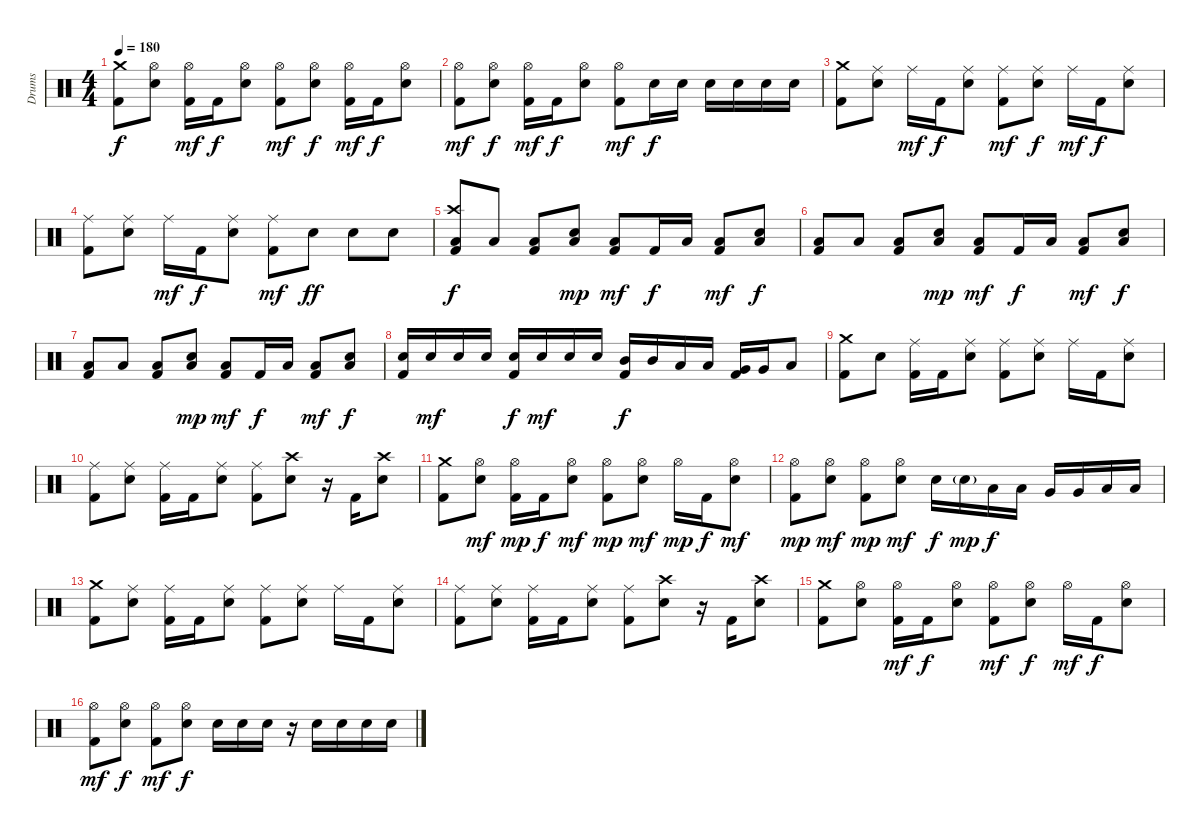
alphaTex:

\track ("Drums" "Drums") {instrument percussion}
\staff {score}
\articulation defaults
\ts (4 4)
\tempo 180
\clef neutral
\ks c
("Crash medium (hit)" "Kick (hit) 2").8{dy f} ("Hi-Hat (open)" "Electric Snare (hit)").8 ("Hi-Hat (open)" "Kick (hit) 2").16{dy mf} "Kick (hit) 2".16{dy f} ("Hi-Hat (open)" "Electric Snare (hit)").8 ("Hi-Hat (open)" "Kick (hit) 2").8{dy mf} ("Hi-Hat (open)" "Electric Snare (hit)").8{dy f} ("Hi-Hat (open)" "Kick (hit) 2").16{dy mf} "Kick (hit) 2".16{dy f} ("Hi-Hat (open)" "Electric Snare (hit)").8 |
("Hi-Hat (open)" "Kick (hit) 2").8{dy mf} ("Hi-Hat (open)" "Electric Snare (hit)").8{dy f} ("Hi-Hat (open)" "Kick (hit) 2").16{dy mf} "Kick (hit) 2".16{dy f} ("Hi-Hat (open)" "Electric Snare (hit)").8 ("Hi-Hat (open)" "Kick (hit) 2").8{dy mf} "Electric Snare (hit)".16{dy f} "Electric Snare (hit)".16 "Electric Snare (hit)".16 "Electric Snare (hit)".16 "Electric Snare (hit)".16 "Electric Snare (hit)".16 |
("Crash medium (hit)" "Kick (hit) 2").8 ("Ride (middle)" "Electric Snare (hit)").8 "Ride (middle)".16{dy mf} "Kick (hit) 2".16{dy f} ("Ride (middle)" "Electric Snare (hit)").8 ("Ride (middle)" "Kick (hit) 2").8{dy mf} ("Ride (middle)" "Electric Snare (hit)").8{dy f} "Ride (middle)".16{dy mf} "Kick (hit) 2".16{dy f} ("Ride (middle)" "Electric Snare (hit)").8 |
("Ride (middle)" "Kick (hit) 2").8 ("Ride (middle)" "Electric Snare (hit)").8 "Ride (middle)".16{dy mf} "Kick (hit) 2".16{dy f} ("Ride (middle)" "Electric Snare (hit)").8 ("Ride (middle)" "Kick (hit) 2").8{dy mf} "Electric Snare (hit)".8{dy ff} "Electric Snare (hit)".8 "Electric Snare (hit)".8 |
("Crash high (hit)" "Low Tom (hit)" "Kick (hit) 2").8{dy f} "Low Tom (hit)".8 ("Low Tom (hit)" "Kick (hit) 2").8 ("Low Tom (hit)" "Electric Snare (hit)").8{dy mp} ("Low Tom (hit)" "Kick (hit) 2").8{dy mf} "Kick (hit) 2".16{dy f} "Low Tom (hit)".16 ("Low Tom (hit)" "Kick (hit) 2").8{dy mf} ("Low Tom (hit)" "Electric Snare (hit)").8{dy f} |
("Low Tom (hit)" "Kick (hit) 2").8 "Low Tom (hit)".8 ("Low Tom (hit)" "Kick (hit) 2").8 ("Low Tom (hit)" "Electric Snare (hit)").8{dy mp} ("Low Tom (hit)" "Kick (hit) 2").8{dy mf} "Kick (hit) 2".16{dy f} "Low Tom (hit)".16 ("Low Tom (hit)" "Kick (hit) 2").8{dy mf} ("Low Tom (hit)" "Electric Snare (hit)").8{dy f} |
("Low Tom (hit)" "Kick (hit) 2").8 "Low Tom (hit)".8 ("Low Tom (hit)" "Kick (hit) 2").8 ("Low Tom (hit)" "Electric Snare (hit)").8{dy mp} ("Low Tom (hit)" "Kick (hit) 2").8{dy mf} "Kick (hit) 2".16{dy f} "Low Tom (hit)".16 ("Low Tom (hit)" "Kick (hit) 2").8{dy mf} ("Low Tom (hit)" "Electric Snare (hit)").8{dy f} |
("Electric Snare (hit)" "Kick (hit) 2").16 "Electric Snare (hit)".16{dy mf} "Electric Snare (hit)".16 "Electric Snare (hit)".16 ("Electric Snare (hit)" "Kick (hit) 2").16{dy f} "Electric Snare (hit)".16{dy mf} "Electric Snare (hit)".16 "Electric Snare (hit)".16 ("Mid Tom (hit)" "Kick (hit) 2").16{dy f} "Mid Tom (hit)".16 "Low Tom (hit)".16 "Low Tom (hit)".16 ("Very Low Tom (hit)" "Kick (hit) 2").16 "Very Low Tom (hit)".16 "Low Floor Tom (hit)".8 |
("Crash medium (hit)" "Kick (hit) 2").8 "Electric Snare (hit)".8 ("Ride (middle)" "Kick (hit) 2").16 "Kick (hit) 2".16 ("Ride (middle)" "Electric Snare (hit)").8 ("Ride (middle)" "Kick (hit) 2").8 ("Ride (middle)" "Electric Snare (hit)").8 "Ride (middle)".16 "Kick (hit) 2".16 ("Ride (middle)" "Electric Snare (hit)").8 |
("Ride (middle)" "Kick (hit) 2").8 ("Ride (middle)" "Electric Snare (hit)").8 ("Ride (middle)" "Kick (hit) 2").16 "Kick (hit) 2".16 ("Ride (middle)" "Electric Snare (hit)").8 ("Ride (middle)" "Kick (hit) 2").8 ("Crash high (hit)" "Electric Snare (hit)").8 r.16 "Kick (hit) 2".16 ("Crash high (hit)" "Electric Snare (hit)").8 |
("Crash medium (hit)" "Kick (hit) 2").8 ("Hi-Hat (open)" "Electric Snare (hit)").8{dy mf} ("Hi-Hat (open)" "Kick (hit) 2").16{dy mp} "Kick (hit) 2".16{dy f} ("Hi-Hat (open)" "Electric Snare (hit)").8{dy mf} ("Hi-Hat (open)" "Kick (hit) 2").8{dy mp} ("Hi-Hat (open)" "Electric Snare (hit)").8{dy mf} "Hi-Hat (open)".16{dy mp} "Kick (hit) 2".16{dy f} ("Hi-Hat (open)" "Electric Snare (hit)").8{dy mf} |
("Hi-Hat (open)" "Kick (hit) 2").8{dy mp} ("Hi-Hat (open)" "Electric Snare (hit)").8{dy mf} ("Hi-Hat (open)" "Kick (hit) 2").8{dy mp} ("Hi-Hat (open)" "Electric Snare (hit)").8{dy mf} "Electric Snare (hit)".16{dy f} "Electric Snare (hit)"{g}.16{dy mp} "Low Tom (hit)".16{dy f} "Low Tom (hit)".16 "Very Low Tom (hit)".16 "Very Low Tom (hit)".16 "Low Tom (hit)".16 "Low Tom (hit)".16 |
("Crash medium (hit)" "Kick (hit) 2").8 ("Ride (middle)" "Electric Snare (hit)").8 ("Ride (middle)" "Kick (hit) 2").16 "Kick (hit) 2".16 ("Ride (middle)" "Electric Snare (hit)").8 ("Ride (middle)" "Kick (hit) 2").8 ("Ride (middle)" "Electric Snare (hit)").8 "Ride (middle)".16 "Kick (hit) 2".16 ("Ride (middle)" "Electric Snare (hit)").8 |
("Ride (middle)" "Kick (hit) 2").8 ("Ride (middle)" "Electric Snare (hit)").8 ("Ride (middle)" "Kick (hit) 2").16 "Kick (hit) 2".16 ("Ride (middle)" "Electric Snare (hit)").8 ("Ride (middle)" "Kick (hit) 2").8 ("Crash high (hit)" "Electric Snare (hit)").8 r.16 "Kick (hit) 2".16 ("Crash high (hit)" "Electric Snare (hit)").8 |
("Crash medium (hit)" "Kick (hit) 2").8 ("Hi-Hat (open)" "Electric Snare (hit)").8 ("Hi-Hat (open)" "Kick (hit) 2").16{dy mf} "Kick (hit) 2".16{dy f} ("Hi-Hat (open)" "Electric Snare (hit)").8 ("Hi-Hat (open)" "Kick (hit) 2").8{dy mf} ("Hi-Hat (open)" "Electric Snare (hit)").8{dy f} "Hi-Hat (open)".16{dy mf} "Kick (hit) 2".16{dy f} ("Hi-Hat (open)" "Electric Snare (hit)").8 |
("Hi-Hat (open)" "Kick (hit) 2").8{dy mf} ("Hi-Hat (open)" "Electric Snare (hit)").8{dy f} ("Hi-Hat (open)" "Kick (hit) 2").8{dy mf} ("Hi-Hat (open)" "Electric Snare (hit)").8{dy f} "Electric Snare (hit)".16 "Electric Snare (hit)".16 "Electric Snare (hit)".16 r.16 "Electric Snare (hit)".16 "Electric Snare (hit)".16 "Electric Snare (hit)".16 "Electric Snare (hit)".16
